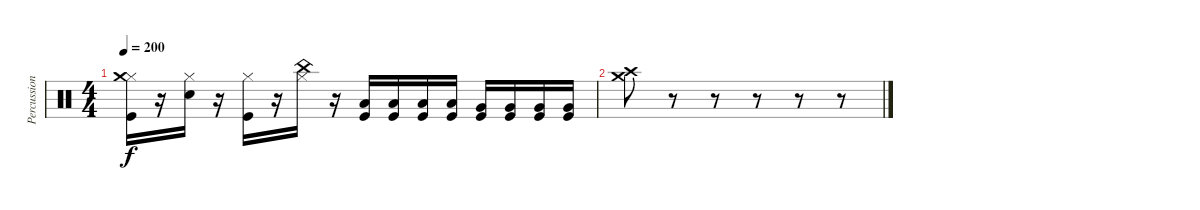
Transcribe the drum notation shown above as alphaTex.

\track ("Percussion" "Percussion") {instrument percussion}
\staff {score}
\articulation defaults
\ts (4 4)
\tempo 200
\clef neutral
\ks c
("Kick (hit)" "Hi-Hat (closed)" "Crash medium (hit)").16{dy f} r.16 ("Electric Snare (hit)" "Hi-Hat (closed)").16 r.16 ("Kick (hit)" "Hi-Hat (closed)").16 r.16 ("China (hit)" "Hi-Hat (closed)").16 r.16 ("Kick (hit)" "Low Tom (hit)").16 ("Kick (hit)" "Low Tom (hit)").16 ("Kick (hit)" "Low Tom (hit)").16 ("Kick (hit)" "Low Tom (hit)").16 ("Kick (hit)" "Very Low Tom (hit)").16 ("Kick (hit)" "Very Low Tom (hit)").16 ("Kick (hit)" "Very Low Tom (hit)").16 ("Kick (hit)" "Very Low Tom (hit)").16 |
("Crash high (hit)" "Crash medium (hit)").8 r.8 r.8 r.8 r.8 r.8
